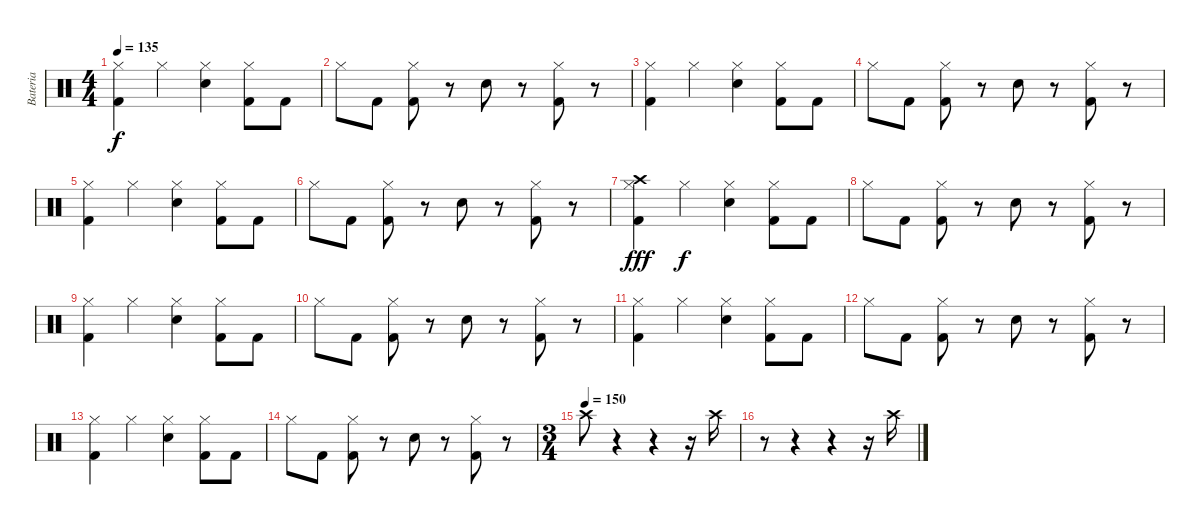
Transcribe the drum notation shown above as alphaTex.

\track ("Bateria" "Bateria") {instrument percussion}
\staff {score}
\articulation defaults
\ts (4 4)
\tempo 135
\clef neutral
\ks c
("Kick (hit) 2" "Hi-Hat (closed)").4{dy f} "Hi-Hat (closed)".4 ("Snare (hit) 2" "Hi-Hat (closed)").4 ("Kick (hit) 2" "Hi-Hat (closed)").8 "Kick (hit) 2".8 |
"Hi-Hat (closed)".8 "Kick (hit) 2".8 ("Kick (hit) 2" "Hi-Hat (closed)").8 r.8 "Snare (hit) 2".8 r.8 ("Kick (hit) 2" "Hi-Hat (closed)").8 r.8 |
("Kick (hit) 2" "Hi-Hat (closed)").4 "Hi-Hat (closed)".4 ("Snare (hit) 2" "Hi-Hat (closed)").4 ("Kick (hit) 2" "Hi-Hat (closed)").8 "Kick (hit) 2".8 |
"Hi-Hat (closed)".8 "Kick (hit) 2".8 ("Kick (hit) 2" "Hi-Hat (closed)").8 r.8 "Snare (hit) 2".8 r.8 ("Kick (hit) 2" "Hi-Hat (closed)").8 r.8 |
("Kick (hit) 2" "Hi-Hat (closed)").4 "Hi-Hat (closed)".4 ("Snare (hit) 2" "Hi-Hat (closed)").4 ("Kick (hit) 2" "Hi-Hat (closed)").8 "Kick (hit) 2".8 |
"Hi-Hat (closed)".8 "Kick (hit) 2".8 ("Kick (hit) 2" "Hi-Hat (closed)").8 r.8 "Snare (hit) 2".8 r.8 ("Kick (hit) 2" "Hi-Hat (closed)").8 r.8 |
("Kick (hit) 2" "Hi-Hat (closed)" "Crash high (hit)").4{dy fff} "Hi-Hat (closed)".4{dy f} ("Snare (hit) 2" "Hi-Hat (closed)").4 ("Kick (hit) 2" "Hi-Hat (closed)").8 "Kick (hit) 2".8 |
"Hi-Hat (closed)".8 "Kick (hit) 2".8 ("Kick (hit) 2" "Hi-Hat (closed)").8 r.8 "Snare (hit) 2".8 r.8 ("Kick (hit) 2" "Hi-Hat (closed)").8 r.8 |
("Kick (hit) 2" "Hi-Hat (closed)").4 "Hi-Hat (closed)".4 ("Snare (hit) 2" "Hi-Hat (closed)").4 ("Kick (hit) 2" "Hi-Hat (closed)").8 "Kick (hit) 2".8 |
"Hi-Hat (closed)".8 "Kick (hit) 2".8 ("Kick (hit) 2" "Hi-Hat (closed)").8 r.8 "Snare (hit) 2".8 r.8 ("Kick (hit) 2" "Hi-Hat (closed)").8 r.8 |
("Kick (hit) 2" "Hi-Hat (closed)").4 "Hi-Hat (closed)".4 ("Snare (hit) 2" "Hi-Hat (closed)").4 ("Kick (hit) 2" "Hi-Hat (closed)").8 "Kick (hit) 2".8 |
"Hi-Hat (closed)".8 "Kick (hit) 2".8 ("Kick (hit) 2" "Hi-Hat (closed)").8 r.8 "Snare (hit) 2".8 r.8 ("Kick (hit) 2" "Hi-Hat (closed)").8 r.8 |
("Kick (hit) 2" "Hi-Hat (closed)").4 "Hi-Hat (closed)".4 ("Snare (hit) 2" "Hi-Hat (closed)").4 ("Kick (hit) 2" "Hi-Hat (closed)").8 "Kick (hit) 2".8 |
"Hi-Hat (closed)".8 "Kick (hit) 2".8 ("Kick (hit) 2" "Hi-Hat (closed)").8 r.8 "Snare (hit) 2".8 r.8 ("Kick (hit) 2" "Hi-Hat (closed)").8 r.8 |
\ts (3 4)
\tempo (150)
"Crash high (hit)".8 r.4 r.4 r.16 "Crash high (hit)".16 |
r.8 r.4 r.4 r.16 "Crash high (hit)".16
